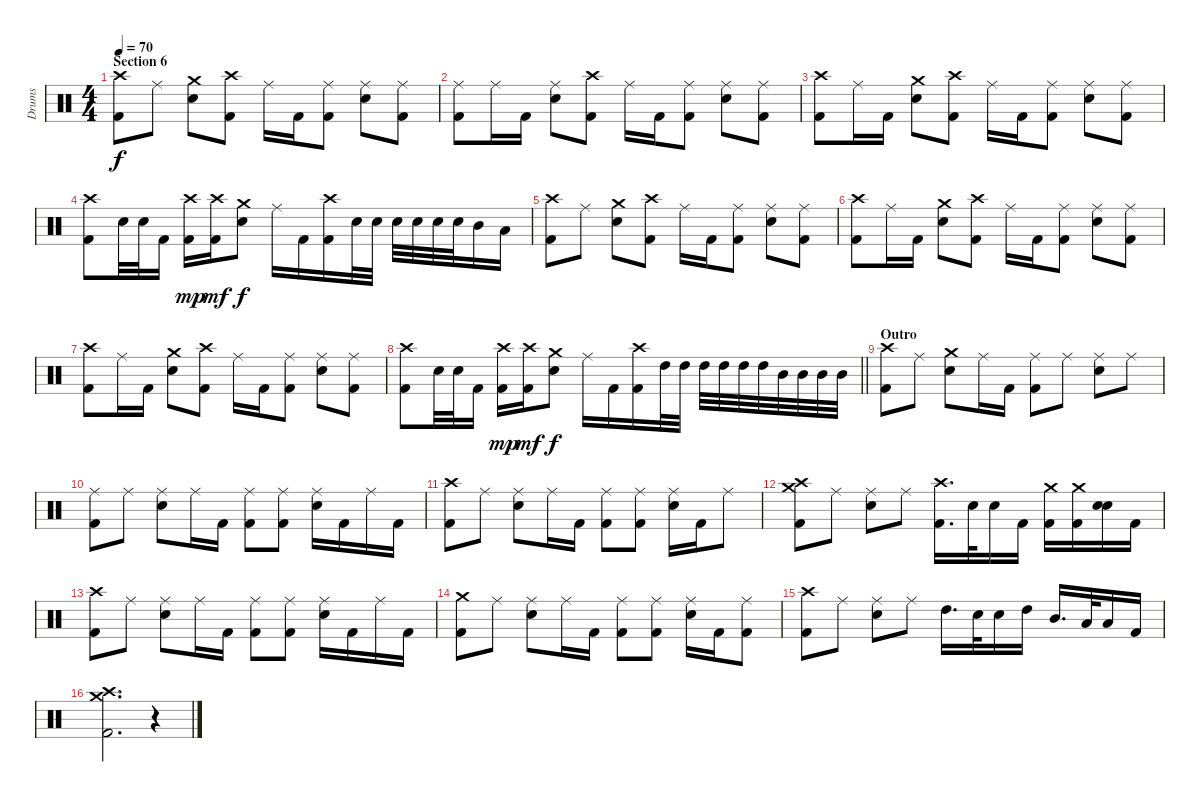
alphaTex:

\track ("Drums" "Drums") {instrument percussion}
\staff {score}
\articulation defaults
\ts (4 4)
\section ("" "Section 6")
\tempo 70
\clef neutral
\ks c
("Crash high (hit)" "Kick (hit) 2").8{dy f} "Ride (middle)".8 ("Crash medium (hit)" "Electric Snare (hit)").8 ("Crash high (hit)" "Kick (hit) 2").8 "Ride (middle)".16 "Kick (hit) 2".16 ("Ride (middle)" "Kick (hit) 2").8 ("Ride (middle)" "Electric Snare (hit)").8 ("Ride (middle)" "Kick (hit) 2").8 |
("Ride (middle)" "Kick (hit) 2").8 "Ride (middle)".16 "Kick (hit) 2".16 ("Ride (middle)" "Electric Snare (hit)").8 ("Crash high (hit)" "Kick (hit) 2").8 "Ride (middle)".16 "Kick (hit) 2".16 ("Ride (middle)" "Kick (hit) 2").8 ("Ride (middle)" "Electric Snare (hit)").8 ("Ride (middle)" "Kick (hit) 2").8 |
("Crash high (hit)" "Kick (hit) 2").8 "Ride (middle)".16 "Kick (hit) 2".16 ("Crash medium (hit)" "Electric Snare (hit)").8 ("Crash high (hit)" "Kick (hit) 2").8 "Ride (middle)".16 "Kick (hit) 2".16 ("Ride (middle)" "Kick (hit) 2").8 ("Ride (middle)" "Electric Snare (hit)").8 ("Ride (middle)" "Kick (hit) 2").8 |
("Crash high (hit)" "Kick (hit) 2").8 "Electric Snare (hit)".32 "Electric Snare (hit)".32 "Kick (hit) 2".16 ("Crash high (hit)" "Kick (hit) 2").16{dy mp} ("Crash high (hit)" "Kick (hit) 2").16{dy mf} ("Crash medium (hit)" "Electric Snare (hit)").8{dy f} "Ride (middle)".16 "Kick (hit) 2".16 ("Crash high (hit)" "Kick (hit) 2").16 "Electric Snare (hit)".32 "Electric Snare (hit)".32 "Electric Snare (hit)".32 "Electric Snare (hit)".32 "Electric Snare (hit)".32 "Electric Snare (hit)".32 "Mid Tom (hit)".16 "Low Tom (hit)".16 |
("Crash high (hit)" "Kick (hit) 2").8 "Ride (middle)".8 ("Crash medium (hit)" "Electric Snare (hit)").8 ("Crash high (hit)" "Kick (hit) 2").8 "Ride (middle)".16 "Kick (hit) 2".16 ("Ride (middle)" "Kick (hit) 2").8 ("Ride (middle)" "Electric Snare (hit)").8 ("Ride (middle)" "Kick (hit) 2").8 |
("Crash high (hit)" "Kick (hit) 2").8 "Ride (middle)".16 "Kick (hit) 2".16 ("Crash medium (hit)" "Electric Snare (hit)").8 ("Crash high (hit)" "Kick (hit) 2").8 "Ride (middle)".16 "Kick (hit) 2".16 ("Ride (middle)" "Kick (hit) 2").8 ("Ride (middle)" "Electric Snare (hit)").8 ("Ride (middle)" "Kick (hit) 2").8 |
("Crash high (hit)" "Kick (hit) 2").8 "Ride (middle)".16 "Kick (hit) 2".16 ("Crash medium (hit)" "Electric Snare (hit)").8 ("Crash high (hit)" "Kick (hit) 2").8 "Ride (middle)".16 "Kick (hit) 2".16 ("Ride (middle)" "Kick (hit) 2").8 ("Ride (middle)" "Electric Snare (hit)").8 ("Ride (middle)" "Kick (hit) 2").8 |
\barLineRight lightlight
("Crash high (hit)" "Kick (hit) 2").8 "Electric Snare (hit)".32 "Electric Snare (hit)".32 "Kick (hit) 2".16 ("Crash high (hit)" "Kick (hit) 2").16{dy mp} ("Crash high (hit)" "Kick (hit) 2").16{dy mf} ("Crash medium (hit)" "Electric Snare (hit)").8{dy f} "Ride (middle)".16 "Kick (hit) 2".16 ("Crash high (hit)" "Kick (hit) 2").16 "High Tom (hit)".32 "High Tom (hit)".32 "High Tom (hit)".32 "High Tom (hit)".32 "High Tom (hit)".32 "High Tom (hit)".32 "Mid Tom (hit)".32 "Mid Tom (hit)".32 "Mid Tom (hit)".32 "Mid Tom (hit)".32 |
\section ("" "Outro")
("Crash high (hit)" "Kick (hit) 2").8 "Ride (middle)".8 ("Crash medium (hit)" "Electric Snare (hit)").8 "Ride (middle)".16 "Kick (hit) 2".16 ("Ride (middle)" "Kick (hit) 2").8 "Ride (middle)".8 ("Ride (middle)" "Electric Snare (hit)").8 "Ride (middle)".8 |
("Ride (middle)" "Kick (hit) 2").8 "Ride (middle)".8 ("Ride (middle)" "Electric Snare (hit)").8 "Ride (middle)".16 "Kick (hit) 2".16 ("Ride (middle)" "Kick (hit) 2").8 ("Ride (middle)" "Kick (hit) 2").8 ("Ride (middle)" "Electric Snare (hit)").16 "Kick (hit) 2".16 "Ride (middle)".16 "Kick (hit) 2".16 |
("Crash high (hit)" "Kick (hit) 2").8 "Ride (middle)".8 ("Ride (middle)" "Electric Snare (hit)").8 "Ride (middle)".16 "Kick (hit) 2".16 ("Ride (middle)" "Kick (hit) 2").8 ("Ride (middle)" "Kick (hit) 2").8 ("Ride (middle)" "Electric Snare (hit)").16 "Kick (hit) 2".16 "Ride (middle)".8 |
("Crash medium (hit)" "Crash high (hit)" "Kick (hit) 2").8 "Ride (middle)".8 ("Ride (middle)" "Electric Snare (hit)").8 "Ride (middle)".8 ("Crash high (hit)" "Kick (hit) 2").16{d} "Electric Snare (hit)".32 "Electric Snare (hit)".16 "Kick (hit) 2".16 ("Crash medium (hit)" "Kick (hit) 2").16 ("Crash medium (hit)" "Kick (hit) 2").16 ("Electric Snare (hit)" "Electric Snare (hit)").16{bu 60} "Kick (hit) 2".16 |
("Crash high (hit)" "Kick (hit) 2").8 "Ride (middle)".8 ("Ride (middle)" "Electric Snare (hit)").8 "Ride (middle)".16 "Kick (hit) 2".16 ("Ride (middle)" "Kick (hit) 2").8 ("Ride (middle)" "Kick (hit) 2").8 ("Ride (middle)" "Electric Snare (hit)").16 "Kick (hit) 2".16 "Ride (middle)".16 "Kick (hit) 2".16 |
("Crash medium (hit)" "Kick (hit) 2").8 "Ride (middle)".8 ("Ride (middle)" "Electric Snare (hit)").8 "Ride (middle)".16 "Kick (hit) 2".16 ("Ride (middle)" "Kick (hit) 2").8 ("Ride (middle)" "Kick (hit) 2").8 ("Ride (middle)" "Electric Snare (hit)").16 "Kick (hit) 2".16 ("Ride (middle)" "Kick (hit) 2").8 |
("Crash high (hit)" "Kick (hit) 2").8 "Ride (middle)".8 ("Ride (middle)" "Electric Snare (hit)").8 "Ride (middle)".8 "High Tom (hit)".16{d} "Electric Snare (hit)".32 "Electric Snare (hit)".16 "High Tom (hit)".16 "Mid Tom (hit)".16{d} "Low Tom (hit)".32 "Low Tom (hit)".16 "Kick (hit) 2".16 |
("Crash medium (hit)" "Crash high (hit)" "Kick (hit) 2").2{d} r.4{volume 2}
